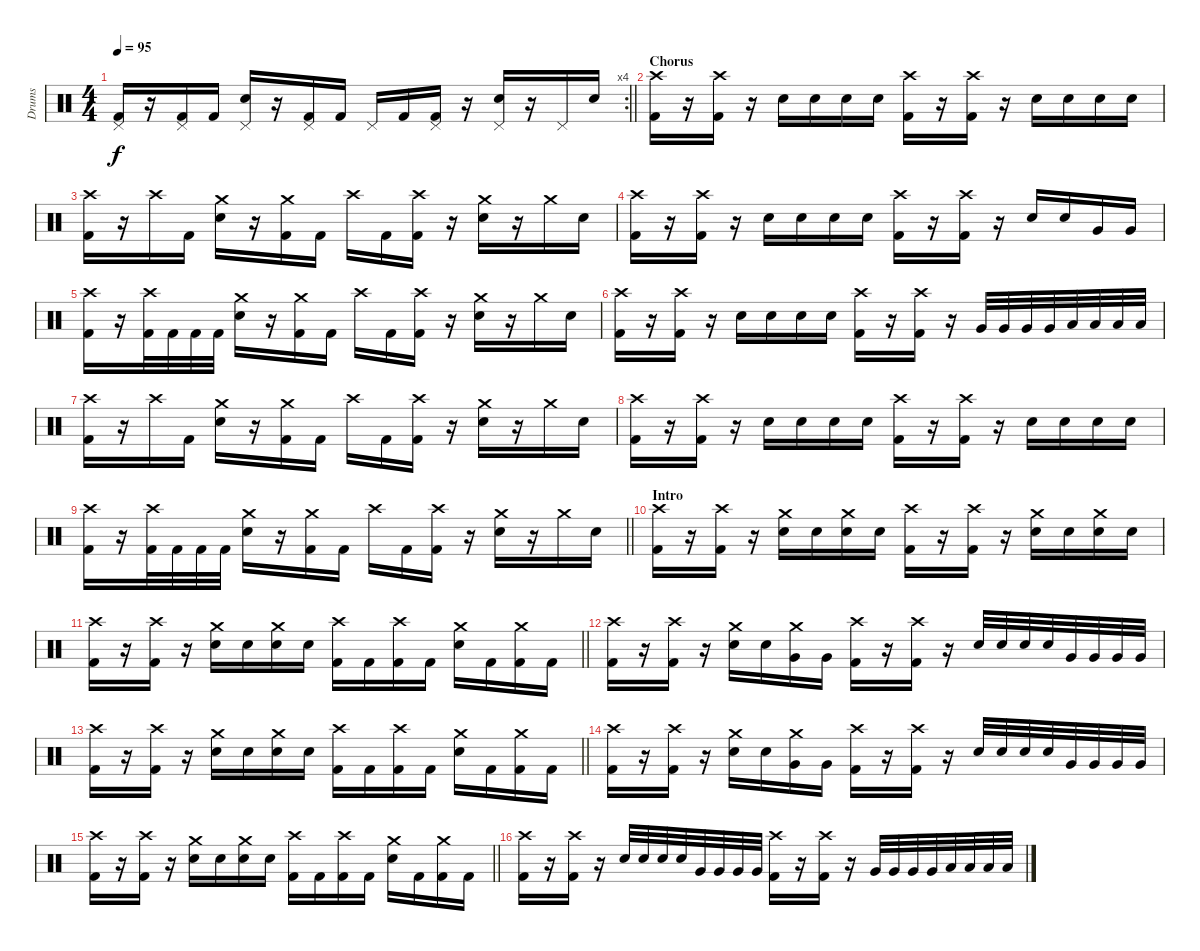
\track ("Drums" "Drums") {instrument percussion}
\staff {score}
\articulation defaults
\rc 4
\ts (4 4)
\tempo 95
\clef neutral
\barLineRight lightlight
\ks c
("Pedal Hi-Hat (hit)" "Kick (hit) 2").16{dy f} r.16 ("Pedal Hi-Hat (hit)" "Kick (hit) 2").16 "Kick (hit) 2".16 ("Pedal Hi-Hat (hit)" "Electric Snare (hit)").16 r.16 ("Pedal Hi-Hat (hit)" "Kick (hit) 2").16 "Kick (hit) 2".16 "Pedal Hi-Hat (hit)".16 "Kick (hit) 2".16 ("Pedal Hi-Hat (hit)" "Kick (hit) 2").16 r.16 ("Pedal Hi-Hat (hit)" "Electric Snare (hit)").16 r.16 "Pedal Hi-Hat (hit)".16 "Electric Snare (hit)".16 |
\section ("" "Chorus")
("Crash high (hit)" "Kick (hit) 2").16 r.16 ("Crash high (hit)" "Kick (hit) 2").16 r.16 "Electric Snare (hit)".16 "Electric Snare (hit)".16 "Electric Snare (hit)".16 "Electric Snare (hit)".16 ("Crash high (hit)" "Kick (hit) 2").16 r.16 ("Crash high (hit)" "Kick (hit) 2").16 r.16 "Electric Snare (hit)".16 "Electric Snare (hit)".16 "Electric Snare (hit)".16 "Electric Snare (hit)".16 |
("Crash high (hit)" "Kick (hit) 2").16 r.16 "Crash high (hit)".16 "Kick (hit) 2".16 ("Crash medium (hit)" "Electric Snare (hit)").16 r.16 ("Crash medium (hit)" "Kick (hit) 2").16 "Kick (hit) 2".16 "Crash high (hit)".16 "Kick (hit) 2".16 ("Crash high (hit)" "Kick (hit) 2").16 r.16 ("Crash medium (hit)" "Electric Snare (hit)").16 r.16 "Crash medium (hit)".16 "Electric Snare (hit)".16 |
("Crash high (hit)" "Kick (hit) 2").16 r.16 ("Crash high (hit)" "Kick (hit) 2").16 r.16 "Electric Snare (hit)".16 "Electric Snare (hit)".16 "Electric Snare (hit)".16 "Electric Snare (hit)".16 ("Crash high (hit)" "Kick (hit) 2").16 r.16 ("Crash high (hit)" "Kick (hit) 2").16 r.16 "Electric Snare (hit)".16 "Electric Snare (hit)".16 "Very Low Tom (hit)".16 "Very Low Tom (hit)".16 |
("Crash high (hit)" "Kick (hit) 2").16 r.16 ("Crash high (hit)" "Kick (hit) 2").32 "Kick (hit) 2".32 "Kick (hit) 2".32 "Kick (hit) 2".32 ("Crash medium (hit)" "Electric Snare (hit)").16 r.16 ("Crash medium (hit)" "Kick (hit) 2").16 "Kick (hit) 2".16 "Crash high (hit)".16 "Kick (hit) 2".16 ("Crash high (hit)" "Kick (hit) 2").16 r.16 ("Crash medium (hit)" "Electric Snare (hit)").16 r.16 "Crash medium (hit)".16 "Electric Snare (hit)".16 |
("Crash high (hit)" "Kick (hit) 2").16 r.16 ("Crash high (hit)" "Kick (hit) 2").16 r.16 "Electric Snare (hit)".16 "Electric Snare (hit)".16 "Electric Snare (hit)".16 "Electric Snare (hit)".16 ("Crash high (hit)" "Kick (hit) 2").16 r.16 ("Crash high (hit)" "Kick (hit) 2").16 r.16 "Very Low Tom (hit)".32 "Very Low Tom (hit)".32 "Very Low Tom (hit)".32 "Very Low Tom (hit)".32 "Low Floor Tom (hit)".32 "Low Floor Tom (hit)".32 "Low Floor Tom (hit)".32 "Low Floor Tom (hit)".32 |
("Crash high (hit)" "Kick (hit) 2").16 r.16 "Crash high (hit)".16 "Kick (hit) 2".16 ("Crash medium (hit)" "Electric Snare (hit)").16 r.16 ("Crash medium (hit)" "Kick (hit) 2").16 "Kick (hit) 2".16 "Crash high (hit)".16 "Kick (hit) 2".16 ("Crash high (hit)" "Kick (hit) 2").16 r.16 ("Crash medium (hit)" "Electric Snare (hit)").16 r.16 "Crash medium (hit)".16 "Electric Snare (hit)".16 |
("Crash high (hit)" "Kick (hit) 2").16 r.16 ("Crash high (hit)" "Kick (hit) 2").16 r.16 "Electric Snare (hit)".16 "Electric Snare (hit)".16 "Electric Snare (hit)".16 "Electric Snare (hit)".16 ("Crash high (hit)" "Kick (hit) 2").16 r.16 ("Crash high (hit)" "Kick (hit) 2").16 r.16 "Electric Snare (hit)".16 "Electric Snare (hit)".16 "Electric Snare (hit)".16 "Electric Snare (hit)".16 |
\barLineRight lightlight
("Crash high (hit)" "Kick (hit) 2").16 r.16 ("Crash high (hit)" "Kick (hit) 2").32 "Kick (hit) 2".32 "Kick (hit) 2".32 "Kick (hit) 2".32 ("Crash medium (hit)" "Electric Snare (hit)").16 r.16 ("Crash medium (hit)" "Kick (hit) 2").16 "Kick (hit) 2".16 "Crash high (hit)".16 "Kick (hit) 2".16 ("Crash high (hit)" "Kick (hit) 2").16 r.16 ("Crash medium (hit)" "Electric Snare (hit)").16 r.16 "Crash medium (hit)".16 "Electric Snare (hit)".16 |
\section ("" "Intro")
("Crash high (hit)" "Kick (hit) 2").16 r.16 ("Crash high (hit)" "Kick (hit) 2").16 r.16 ("Crash medium (hit)" "Electric Snare (hit)").16 "Electric Snare (hit)".16 ("Crash medium (hit)" "Electric Snare (hit)").16 "Electric Snare (hit)".16 ("Crash high (hit)" "Kick (hit) 2").16 r.16 ("Crash high (hit)" "Kick (hit) 2").16 r.16 ("Crash medium (hit)" "Electric Snare (hit)").16 "Electric Snare (hit)".16 ("Crash medium (hit)" "Electric Snare (hit)").16 "Electric Snare (hit)".16 |
\barLineRight lightlight
("Crash high (hit)" "Kick (hit) 2").16 r.16 ("Crash high (hit)" "Kick (hit) 2").16 r.16 ("Crash medium (hit)" "Electric Snare (hit)").16 "Electric Snare (hit)".16 ("Crash medium (hit)" "Electric Snare (hit)").16 "Electric Snare (hit)".16 ("Crash high (hit)" "Kick (hit) 2").16 "Kick (hit) 2".16 ("Crash high (hit)" "Kick (hit) 2").16 "Kick (hit) 2".16 ("Crash medium (hit)" "Electric Snare (hit)").16 "Kick (hit) 2".16 ("Crash medium (hit)" "Kick (hit) 2").16 "Kick (hit) 2".16 |
("Crash high (hit)" "Kick (hit) 2").16 r.16 ("Crash high (hit)" "Kick (hit) 2").16 r.16 ("Crash medium (hit)" "Electric Snare (hit)").16 "Electric Snare (hit)".16 ("Crash medium (hit)" "Very Low Tom (hit)").16 "Very Low Tom (hit)".16 ("Crash high (hit)" "Kick (hit) 2").16 r.16 ("Crash high (hit)" "Kick (hit) 2").16 r.16 "Electric Snare (hit)".32 "Electric Snare (hit)".32 "Electric Snare (hit)".32 "Electric Snare (hit)".32 "Very Low Tom (hit)".32 "Very Low Tom (hit)".32 "Very Low Tom (hit)".32 "Very Low Tom (hit)".32 |
\barLineRight lightlight
("Crash high (hit)" "Kick (hit) 2").16 r.16 ("Crash high (hit)" "Kick (hit) 2").16 r.16 ("Crash medium (hit)" "Electric Snare (hit)").16 "Electric Snare (hit)".16 ("Crash medium (hit)" "Electric Snare (hit)").16 "Electric Snare (hit)".16 ("Crash high (hit)" "Kick (hit) 2").16 "Kick (hit) 2".16 ("Crash high (hit)" "Kick (hit) 2").16 "Kick (hit) 2".16 ("Crash medium (hit)" "Electric Snare (hit)").16 "Kick (hit) 2".16 ("Crash medium (hit)" "Kick (hit) 2").16 "Kick (hit) 2".16 |
("Crash high (hit)" "Kick (hit) 2").16 r.16 ("Crash high (hit)" "Kick (hit) 2").16 r.16 ("Crash medium (hit)" "Electric Snare (hit)").16 "Electric Snare (hit)".16 ("Crash medium (hit)" "Very Low Tom (hit)").16 "Very Low Tom (hit)".16 ("Crash high (hit)" "Kick (hit) 2").16 r.16 ("Crash high (hit)" "Kick (hit) 2").16 r.16 "Electric Snare (hit)".32 "Electric Snare (hit)".32 "Electric Snare (hit)".32 "Electric Snare (hit)".32 "Very Low Tom (hit)".32 "Very Low Tom (hit)".32 "Very Low Tom (hit)".32 "Very Low Tom (hit)".32 |
\barLineRight lightlight
("Crash high (hit)" "Kick (hit) 2").16 r.16 ("Crash high (hit)" "Kick (hit) 2").16 r.16 ("Crash medium (hit)" "Electric Snare (hit)").16 "Electric Snare (hit)".16 ("Crash medium (hit)" "Electric Snare (hit)").16 "Electric Snare (hit)".16 ("Crash high (hit)" "Kick (hit) 2").16 "Kick (hit) 2".16 ("Crash high (hit)" "Kick (hit) 2").16 "Kick (hit) 2".16 ("Crash medium (hit)" "Electric Snare (hit)").16 "Kick (hit) 2".16 ("Crash medium (hit)" "Kick (hit) 2").16 "Kick (hit) 2".16 |
("Crash high (hit)" "Kick (hit) 2").16 r.16 ("Crash high (hit)" "Kick (hit) 2").16 r.16 "Electric Snare (hit)".32 "Electric Snare (hit)".32 "Electric Snare (hit)".32 "Electric Snare (hit)".32 "Very Low Tom (hit)".32 "Very Low Tom (hit)".32 "Very Low Tom (hit)".32 "Very Low Tom (hit)".32 ("Crash high (hit)" "Kick (hit) 2").16 r.16 ("Crash high (hit)" "Kick (hit) 2").16 r.16 "Very Low Tom (hit)".32 "Very Low Tom (hit)".32 "Very Low Tom (hit)".32 "Very Low Tom (hit)".32 "Low Floor Tom (hit)".32 "Low Floor Tom (hit)".32 "Low Floor Tom (hit)".32 "Low Floor Tom (hit)".32
